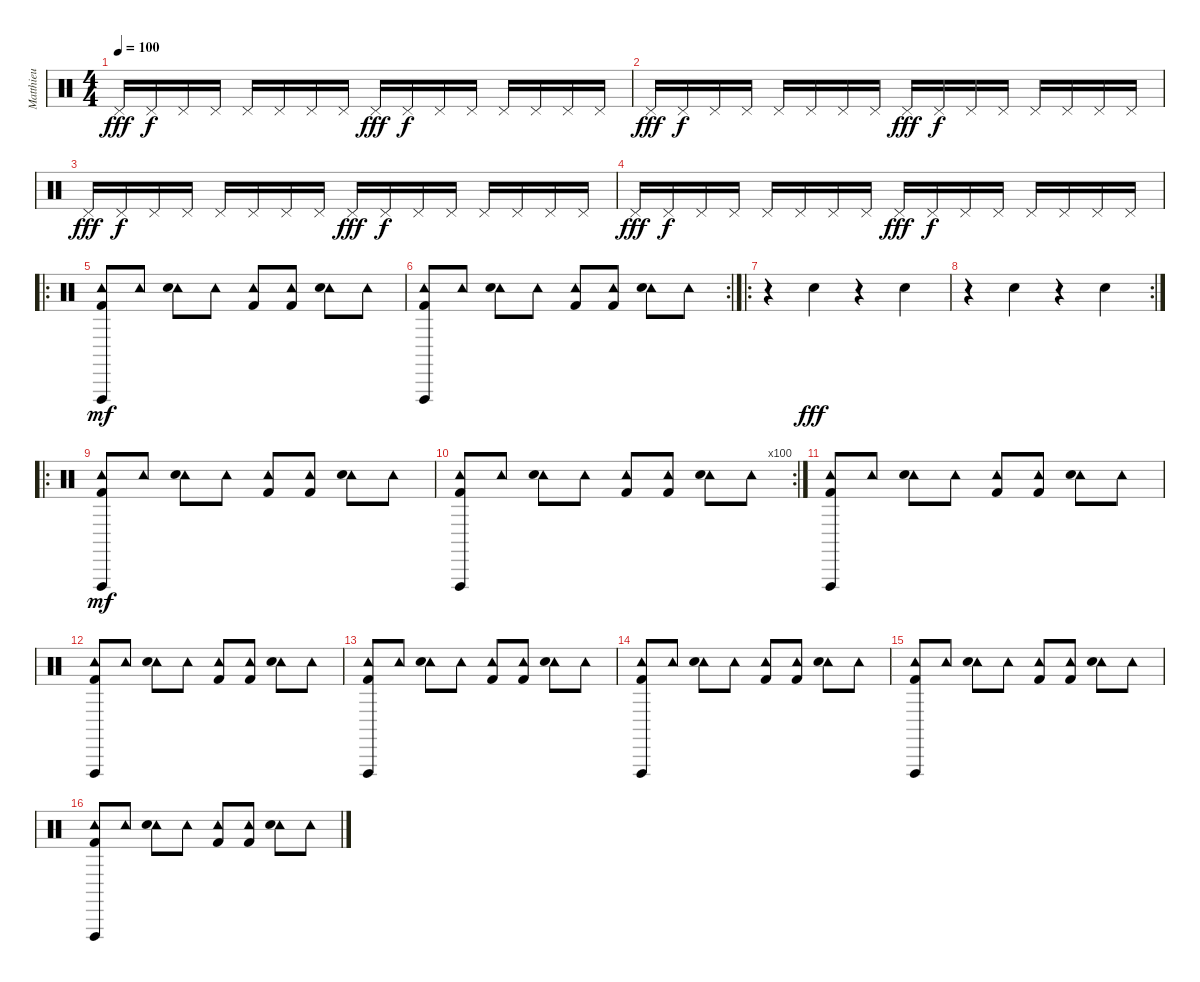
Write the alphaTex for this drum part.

\track ("Matthieu" "Matthieu") {instrument percussion}
\staff {score}
\articulation defaults
\ts (4 4)
\tempo 100
\clef neutral
\ks c "Pedal Hi-Hat (hit)".16{dy fff} "Pedal Hi-Hat (hit)".16{dy f} "Pedal Hi-Hat (hit)".16 "Pedal Hi-Hat (hit)".16 "Pedal Hi-Hat (hit)".16 "Pedal Hi-Hat (hit)".16 "Pedal Hi-Hat (hit)".16 "Pedal Hi-Hat (hit)".16 "Pedal Hi-Hat (hit)".16{dy fff} "Pedal Hi-Hat (hit)".16{dy f} "Pedal Hi-Hat (hit)".16 "Pedal Hi-Hat (hit)".16 "Pedal Hi-Hat (hit)".16 "Pedal Hi-Hat (hit)".16 "Pedal Hi-Hat (hit)".16 "Pedal Hi-Hat (hit)".16
|
"Pedal Hi-Hat (hit)".16{dy fff} "Pedal Hi-Hat (hit)".16{dy f} "Pedal Hi-Hat (hit)".16 "Pedal Hi-Hat (hit)".16 "Pedal Hi-Hat (hit)".16 "Pedal Hi-Hat (hit)".16 "Pedal Hi-Hat (hit)".16 "Pedal Hi-Hat (hit)".16 "Pedal Hi-Hat (hit)".16{dy fff} "Pedal Hi-Hat (hit)".16{dy f} "Pedal Hi-Hat (hit)".16 "Pedal Hi-Hat (hit)".16 "Pedal Hi-Hat (hit)".16 "Pedal Hi-Hat (hit)".16 "Pedal Hi-Hat (hit)".16 "Pedal Hi-Hat (hit)".16 |
"Pedal Hi-Hat (hit)".16{dy fff} "Pedal Hi-Hat (hit)".16{dy f} "Pedal Hi-Hat (hit)".16 "Pedal Hi-Hat (hit)".16 "Pedal Hi-Hat (hit)".16 "Pedal Hi-Hat (hit)".16 "Pedal Hi-Hat (hit)".16 "Pedal Hi-Hat (hit)".16 "Pedal Hi-Hat (hit)".16{dy fff} "Pedal Hi-Hat (hit)".16{dy f} "Pedal Hi-Hat (hit)".16 "Pedal Hi-Hat (hit)".16 "Pedal Hi-Hat (hit)".16 "Pedal Hi-Hat (hit)".16 "Pedal Hi-Hat (hit)".16 "Pedal Hi-Hat (hit)".16 |
"Pedal Hi-Hat (hit)".16{dy fff} "Pedal Hi-Hat (hit)".16{dy f} "Pedal Hi-Hat (hit)".16 "Pedal Hi-Hat (hit)".16 "Pedal Hi-Hat (hit)".16 "Pedal Hi-Hat (hit)".16 "Pedal Hi-Hat (hit)".16 "Pedal Hi-Hat (hit)".16 "Pedal Hi-Hat (hit)".16{dy fff} "Pedal Hi-Hat (hit)".16{dy f} "Pedal Hi-Hat (hit)".16 "Pedal Hi-Hat (hit)".16 "Pedal Hi-Hat (hit)".16 "Pedal Hi-Hat (hit)".16 "Pedal Hi-Hat (hit)".16 "Pedal Hi-Hat (hit)".16 |
\ro
("Vibraslap (hit)" "Tambourine (hit)" "Kick (hit) 2").8{dy mf} "Tambourine (hit)".8 ("Tambourine (hit)" "Snare (hit) 2").8 "Tambourine (hit)".8 ("Tambourine (hit)" "Kick (hit) 2").8 ("Tambourine (hit)" "Kick (hit) 2").8 ("Tambourine (hit)" "Snare (hit) 2").8 "Tambourine (hit)".8 |
\rc 2
("Vibraslap (hit)" "Tambourine (hit)" "Kick (hit) 2").8 "Tambourine (hit)".8 ("Tambourine (hit)" "Snare (hit) 2").8 "Tambourine (hit)".8 ("Tambourine (hit)" "Kick (hit) 2").8 ("Tambourine (hit)" "Kick (hit) 2").8 ("Tambourine (hit)" "Snare (hit) 2").8 "Tambourine (hit)".8 |
\ro
r.4 "Hand Clap (hit)".4{dy fff} r.4 "Hand Clap (hit)".4 |
\rc 2
r.4 "Hand Clap (hit)".4 r.4 "Hand Clap (hit)".4 |
\ro
("Vibraslap (hit)" "Tambourine (hit)" "Kick (hit) 2").8{dy mf} "Tambourine (hit)".8 ("Tambourine (hit)" "Snare (hit) 2").8 "Tambourine (hit)".8 ("Tambourine (hit)" "Kick (hit) 2").8 ("Tambourine (hit)" "Kick (hit) 2").8 ("Tambourine (hit)" "Snare (hit) 2").8 "Tambourine (hit)".8 |
\rc 100
("Vibraslap (hit)" "Tambourine (hit)" "Kick (hit) 2").8 "Tambourine (hit)".8 ("Tambourine (hit)" "Snare (hit) 2").8 "Tambourine (hit)".8 ("Tambourine (hit)" "Kick (hit) 2").8 ("Tambourine (hit)" "Kick (hit) 2").8 ("Tambourine (hit)" "Snare (hit) 2").8 "Tambourine (hit)".8 |
("Vibraslap (hit)" "Tambourine (hit)" "Kick (hit) 2").8 "Tambourine (hit)".8 ("Tambourine (hit)" "Snare (hit) 2").8 "Tambourine (hit)".8 ("Tambourine (hit)" "Kick (hit) 2").8 ("Tambourine (hit)" "Kick (hit) 2").8 ("Tambourine (hit)" "Snare (hit) 2").8 "Tambourine (hit)".8 |
("Vibraslap (hit)" "Tambourine (hit)" "Kick (hit) 2").8 "Tambourine (hit)".8 ("Tambourine (hit)" "Snare (hit) 2").8 "Tambourine (hit)".8 ("Tambourine (hit)" "Kick (hit) 2").8 ("Tambourine (hit)" "Kick (hit) 2").8 ("Tambourine (hit)" "Snare (hit) 2").8 "Tambourine (hit)".8 |
("Vibraslap (hit)" "Tambourine (hit)" "Kick (hit) 2").8 "Tambourine (hit)".8 ("Tambourine (hit)" "Snare (hit) 2").8 "Tambourine (hit)".8 ("Tambourine (hit)" "Kick (hit) 2").8 ("Tambourine (hit)" "Kick (hit) 2").8 ("Tambourine (hit)" "Snare (hit) 2").8 "Tambourine (hit)".8 |
("Vibraslap (hit)" "Tambourine (hit)" "Kick (hit) 2").8 "Tambourine (hit)".8 ("Tambourine (hit)" "Snare (hit) 2").8 "Tambourine (hit)".8 ("Tambourine (hit)" "Kick (hit) 2").8 ("Tambourine (hit)" "Kick (hit) 2").8 ("Tambourine (hit)" "Snare (hit) 2").8 "Tambourine (hit)".8 |
("Vibraslap (hit)" "Tambourine (hit)" "Kick (hit) 2").8 "Tambourine (hit)".8 ("Tambourine (hit)" "Snare (hit) 2").8 "Tambourine (hit)".8 ("Tambourine (hit)" "Kick (hit) 2").8 ("Tambourine (hit)" "Kick (hit) 2").8 ("Tambourine (hit)" "Snare (hit) 2").8 "Tambourine (hit)".8 |
("Vibraslap (hit)" "Tambourine (hit)" "Kick (hit) 2").8 "Tambourine (hit)".8 ("Tambourine (hit)" "Snare (hit) 2").8 "Tambourine (hit)".8 ("Tambourine (hit)" "Kick (hit) 2").8 ("Tambourine (hit)" "Kick (hit) 2").8 ("Tambourine (hit)" "Snare (hit) 2").8 "Tambourine (hit)".8
